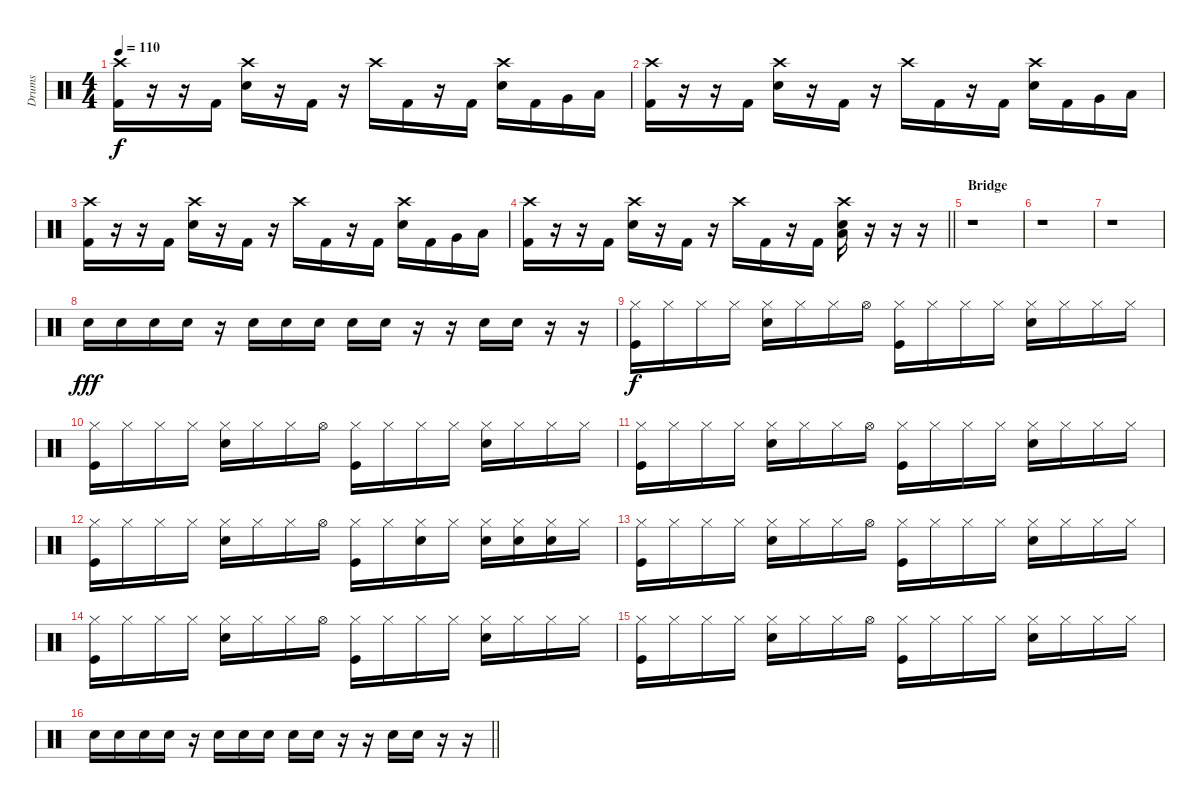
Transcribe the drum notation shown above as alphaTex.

\track ("Drums" "Drums") {instrument percussion}
\staff {score}
\articulation defaults
\ts (4 4)
\tempo 110
\clef neutral
\ks c
("Crash high (hit)" "Kick (hit) 2").16{dy f} r.16 r.16 "Kick (hit) 2".16 ("Crash high (hit)" "Snare (hit) 2").16 r.16 "Kick (hit) 2".16 r.16 "Crash high (hit)".16 "Kick (hit) 2".16 r.16 "Kick (hit) 2".16 ("Crash high (hit)" "Snare (hit) 2").16 "Kick (hit) 2".16 "Very Low Tom (hit)".16 "Low Tom (hit)".16 |
("Crash high (hit)" "Kick (hit) 2").16 r.16 r.16 "Kick (hit) 2".16 ("Crash high (hit)" "Snare (hit) 2").16 r.16 "Kick (hit) 2".16 r.16 "Crash high (hit)".16 "Kick (hit) 2".16 r.16 "Kick (hit) 2".16 ("Crash high (hit)" "Snare (hit) 2").16 "Kick (hit) 2".16 "Very Low Tom (hit)".16 "Low Tom (hit)".16 |
("Crash high (hit)" "Kick (hit) 2").16 r.16 r.16 "Kick (hit) 2".16 ("Crash high (hit)" "Snare (hit) 2").16 r.16 "Kick (hit) 2".16 r.16 "Crash high (hit)".16 "Kick (hit) 2".16 r.16 "Kick (hit) 2".16 ("Crash high (hit)" "Snare (hit) 2").16 "Kick (hit) 2".16 "Very Low Tom (hit)".16 "Low Tom (hit)".16 |
\barLineRight lightlight
("Crash high (hit)" "Kick (hit) 2").16 r.16 r.16 "Kick (hit) 2".16 ("Crash high (hit)" "Snare (hit) 2").16 r.16 "Kick (hit) 2".16 r.16 "Crash high (hit)".16 "Kick (hit) 2".16 r.16 "Kick (hit) 2".16 ("Crash high (hit)" "Low Floor Tom (hit)" "Snare (hit) 2").16 r.16 r.16 r.16 |
\section ("" "Bridge")
r.1 |
r.1 |
r.1 |
"Snare (hit) 2".16{dy fff} "Snare (hit) 2".16 "Snare (hit) 2".16 "Snare (hit) 2".16 r.16 "Snare (hit) 2".16 "Snare (hit) 2".16 "Snare (hit) 2".16 "Snare (hit) 2".16 "Snare (hit) 2".16 r.16 r.16 "Snare (hit) 2".16 "Snare (hit) 2".16 r.16 r.16 |
("Hi-Hat (closed)" "Kick (hit)").16{dy f} "Hi-Hat (closed)".16 "Hi-Hat (closed)".16 "Hi-Hat (closed)".16 ("Hi-Hat (closed)" "Snare (hit) 2").16 "Hi-Hat (closed)".16 "Hi-Hat (closed)".16 "Hi-Hat (open)".16 ("Hi-Hat (closed)" "Kick (hit)").16 "Hi-Hat (closed)".16 "Hi-Hat (closed)".16 "Hi-Hat (closed)".16 ("Hi-Hat (closed)" "Snare (hit) 2").16 "Hi-Hat (closed)".16 "Hi-Hat (closed)".16 "Hi-Hat (closed)".16 |
("Hi-Hat (closed)" "Kick (hit)").16 "Hi-Hat (closed)".16 "Hi-Hat (closed)".16 "Hi-Hat (closed)".16 ("Hi-Hat (closed)" "Snare (hit) 2").16 "Hi-Hat (closed)".16 "Hi-Hat (closed)".16 "Hi-Hat (open)".16 ("Hi-Hat (closed)" "Kick (hit)").16 "Hi-Hat (closed)".16 "Hi-Hat (closed)".16 "Hi-Hat (closed)".16 ("Hi-Hat (closed)" "Snare (hit) 2").16 "Hi-Hat (closed)".16 "Hi-Hat (closed)".16 "Hi-Hat (closed)".16 |
("Hi-Hat (closed)" "Kick (hit)").16 "Hi-Hat (closed)".16 "Hi-Hat (closed)".16 "Hi-Hat (closed)".16 ("Hi-Hat (closed)" "Snare (hit) 2").16 "Hi-Hat (closed)".16 "Hi-Hat (closed)".16 "Hi-Hat (open)".16 ("Hi-Hat (closed)" "Kick (hit)").16 "Hi-Hat (closed)".16 "Hi-Hat (closed)".16 "Hi-Hat (closed)".16 ("Hi-Hat (closed)" "Snare (hit) 2").16 "Hi-Hat (closed)".16 "Hi-Hat (closed)".16 "Hi-Hat (closed)".16 |
("Hi-Hat (closed)" "Kick (hit)").16 "Hi-Hat (closed)".16 "Hi-Hat (closed)".16 "Hi-Hat (closed)".16 ("Hi-Hat (closed)" "Snare (hit) 2").16 "Hi-Hat (closed)".16 "Hi-Hat (closed)".16 "Hi-Hat (open)".16 ("Hi-Hat (closed)" "Kick (hit)").16 "Hi-Hat (closed)".16 ("Hi-Hat (closed)" "Snare (hit) 2").16 "Hi-Hat (closed)".16 ("Hi-Hat (closed)" "Snare (hit) 2").16 ("Hi-Hat (closed)" "Snare (hit) 2").16 ("Hi-Hat (closed)" "Snare (hit) 2").16 "Hi-Hat (closed)".16 |
("Hi-Hat (closed)" "Kick (hit)").16 "Hi-Hat (closed)".16 "Hi-Hat (closed)".16 "Hi-Hat (closed)".16 ("Hi-Hat (closed)" "Snare (hit) 2").16 "Hi-Hat (closed)".16 "Hi-Hat (closed)".16 "Hi-Hat (open)".16 ("Hi-Hat (closed)" "Kick (hit)").16 "Hi-Hat (closed)".16 "Hi-Hat (closed)".16 "Hi-Hat (closed)".16 ("Hi-Hat (closed)" "Snare (hit) 2").16 "Hi-Hat (closed)".16 "Hi-Hat (closed)".16 "Hi-Hat (closed)".16 |
("Hi-Hat (closed)" "Kick (hit)").16 "Hi-Hat (closed)".16 "Hi-Hat (closed)".16 "Hi-Hat (closed)".16 ("Hi-Hat (closed)" "Snare (hit) 2").16 "Hi-Hat (closed)".16 "Hi-Hat (closed)".16 "Hi-Hat (open)".16 ("Hi-Hat (closed)" "Kick (hit)").16 "Hi-Hat (closed)".16 "Hi-Hat (closed)".16 "Hi-Hat (closed)".16 ("Hi-Hat (closed)" "Snare (hit) 2").16 "Hi-Hat (closed)".16 "Hi-Hat (closed)".16 "Hi-Hat (closed)".16 |
("Hi-Hat (closed)" "Kick (hit)").16 "Hi-Hat (closed)".16 "Hi-Hat (closed)".16 "Hi-Hat (closed)".16 ("Hi-Hat (closed)" "Snare (hit) 2").16 "Hi-Hat (closed)".16 "Hi-Hat (closed)".16 "Hi-Hat (open)".16 ("Hi-Hat (closed)" "Kick (hit)").16 "Hi-Hat (closed)".16 "Hi-Hat (closed)".16 "Hi-Hat (closed)".16 ("Hi-Hat (closed)" "Snare (hit) 2").16 "Hi-Hat (closed)".16 "Hi-Hat (closed)".16 "Hi-Hat (closed)".16 |
\barLineRight lightlight "Snare (hit) 2".16 "Snare (hit) 2".16 "Snare (hit) 2".16 "Snare (hit) 2".16
r.16 "Snare (hit) 2".16 "Snare (hit) 2".16 "Snare (hit) 2".16 "Snare (hit) 2".16 "Snare (hit) 2".16 r.16 r.16 "Snare (hit) 2".16 "Snare (hit) 2".16 r.16 r.16
